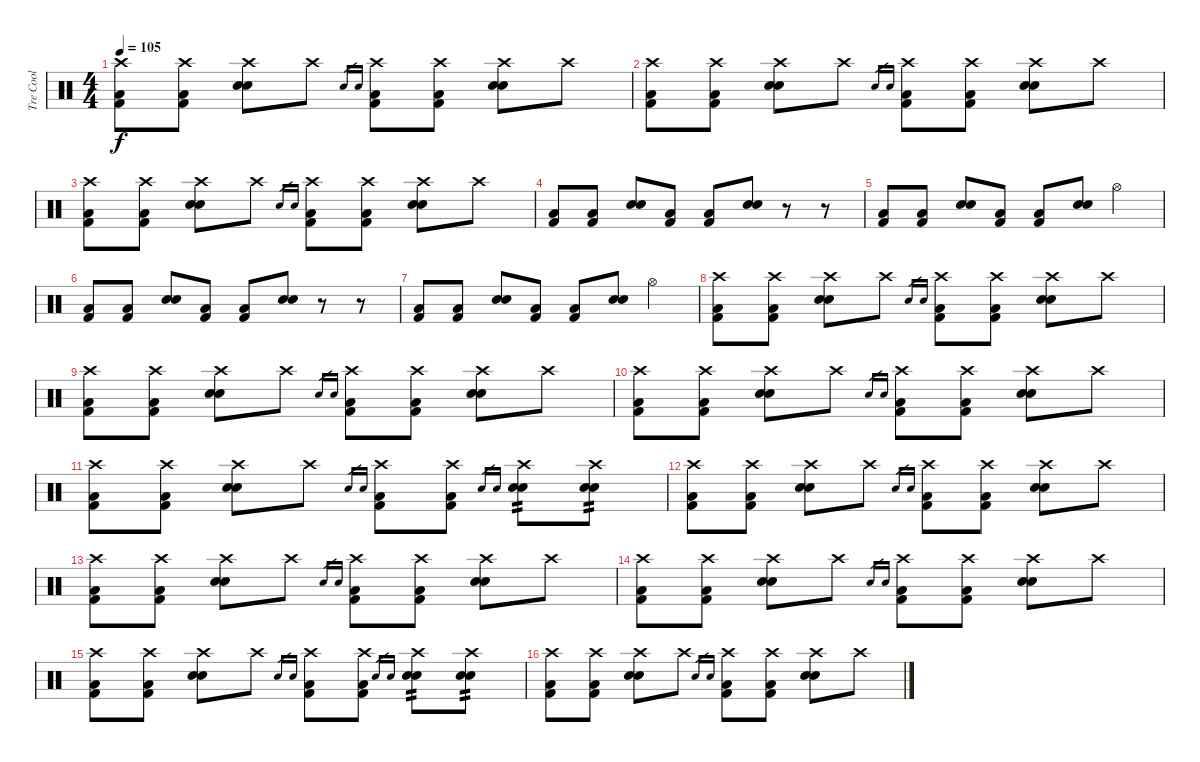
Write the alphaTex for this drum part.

\track ("Tre Cool" "Tre Cool") {instrument percussion}
\staff {score}
\articulation defaults
\ts (4 4)
\tempo 105
\clef neutral
\ks c
("Crash high (hit)" "Kick (hit) 2" "Low Floor Tom (hit)").8{dy f} ("Crash high (hit)" "Kick (hit) 2" "Low Floor Tom (hit)").8 ("Crash high (hit)" "Electric Snare (hit)" "Electric Snare (hit)").8 "Crash high (hit)".8 "Electric Snare (hit)".16{gr} "Electric Snare (hit)".16{gr} ("Crash high (hit)" "Kick (hit) 2" "Low Floor Tom (hit)").8 ("Crash high (hit)" "Kick (hit) 2" "Low Floor Tom (hit)").8 ("Crash high (hit)" "Electric Snare (hit)" "Electric Snare (hit)").8 "Crash high (hit)".8 |
("Crash high (hit)" "Kick (hit) 2" "Low Floor Tom (hit)").8 ("Crash high (hit)" "Kick (hit) 2" "Low Floor Tom (hit)").8 ("Crash high (hit)" "Electric Snare (hit)" "Electric Snare (hit)").8 "Crash high (hit)".8 "Electric Snare (hit)".16{gr} "Electric Snare (hit)".16{gr} ("Crash high (hit)" "Kick (hit) 2" "Low Floor Tom (hit)").8 ("Crash high (hit)" "Kick (hit) 2" "Low Floor Tom (hit)").8 ("Crash high (hit)" "Electric Snare (hit)" "Electric Snare (hit)").8 "Crash high (hit)".8 |
("Crash high (hit)" "Kick (hit) 2" "Low Floor Tom (hit)").8 ("Crash high (hit)" "Kick (hit) 2" "Low Floor Tom (hit)").8 ("Crash high (hit)" "Electric Snare (hit)" "Electric Snare (hit)").8 "Crash high (hit)".8 "Electric Snare (hit)".16{gr} "Electric Snare (hit)".16{gr} ("Crash high (hit)" "Kick (hit) 2" "Low Floor Tom (hit)").8 ("Crash high (hit)" "Kick (hit) 2" "Low Floor Tom (hit)").8 ("Crash high (hit)" "Electric Snare (hit)" "Electric Snare (hit)").8 "Crash high (hit)".8 |
("Kick (hit) 2" "Low Floor Tom (hit)").8 ("Kick (hit) 2" "Low Floor Tom (hit)").8 ("Electric Snare (hit)" "Electric Snare (hit)").8 ("Kick (hit) 2" "Low Floor Tom (hit)").8 ("Kick (hit) 2" "Low Floor Tom (hit)").8 ("Electric Snare (hit)" "Electric Snare (hit)").8 r.8 r.8 |
("Kick (hit) 2" "Low Floor Tom (hit)").8 ("Kick (hit) 2" "Low Floor Tom (hit)").8 ("Electric Snare (hit)" "Electric Snare (hit)").8 ("Kick (hit) 2" "Low Floor Tom (hit)").8 ("Kick (hit) 2" "Low Floor Tom (hit)").8 ("Electric Snare (hit)" "Electric Snare (hit)").8 "Hi-Hat (open)".4 |
("Kick (hit) 2" "Low Floor Tom (hit)").8 ("Kick (hit) 2" "Low Floor Tom (hit)").8 ("Electric Snare (hit)" "Electric Snare (hit)").8 ("Kick (hit) 2" "Low Floor Tom (hit)").8 ("Kick (hit) 2" "Low Floor Tom (hit)").8 ("Electric Snare (hit)" "Electric Snare (hit)").8 r.8 r.8 |
("Kick (hit) 2" "Low Floor Tom (hit)").8 ("Kick (hit) 2" "Low Floor Tom (hit)").8 ("Electric Snare (hit)" "Electric Snare (hit)").8 ("Kick (hit) 2" "Low Floor Tom (hit)").8 ("Kick (hit) 2" "Low Floor Tom (hit)").8 ("Electric Snare (hit)" "Electric Snare (hit)").8 "Hi-Hat (open)".4 |
("Crash high (hit)" "Kick (hit) 2" "Low Floor Tom (hit)").8 ("Crash high (hit)" "Kick (hit) 2" "Low Floor Tom (hit)").8 ("Crash high (hit)" "Electric Snare (hit)" "Electric Snare (hit)").8 "Crash high (hit)".8 "Electric Snare (hit)".16{gr} "Electric Snare (hit)".16{gr} ("Crash high (hit)" "Kick (hit) 2" "Low Floor Tom (hit)").8 ("Crash high (hit)" "Kick (hit) 2" "Low Floor Tom (hit)").8 ("Crash high (hit)" "Electric Snare (hit)" "Electric Snare (hit)").8 "Crash high (hit)".8 |
("Crash high (hit)" "Kick (hit) 2" "Low Floor Tom (hit)").8 ("Crash high (hit)" "Kick (hit) 2" "Low Floor Tom (hit)").8 ("Crash high (hit)" "Electric Snare (hit)" "Electric Snare (hit)").8 "Crash high (hit)".8 "Electric Snare (hit)".16{gr} "Electric Snare (hit)".16{gr} ("Crash high (hit)" "Kick (hit) 2" "Low Floor Tom (hit)").8 ("Crash high (hit)" "Kick (hit) 2" "Low Floor Tom (hit)").8 ("Crash high (hit)" "Electric Snare (hit)" "Electric Snare (hit)").8 "Crash high (hit)".8 |
("Crash high (hit)" "Kick (hit) 2" "Low Floor Tom (hit)").8 ("Crash high (hit)" "Kick (hit) 2" "Low Floor Tom (hit)").8 ("Crash high (hit)" "Electric Snare (hit)" "Electric Snare (hit)").8 "Crash high (hit)".8 "Electric Snare (hit)".16{gr} "Electric Snare (hit)".16{gr} ("Crash high (hit)" "Kick (hit) 2" "Low Floor Tom (hit)").8 ("Crash high (hit)" "Kick (hit) 2" "Low Floor Tom (hit)").8 ("Crash high (hit)" "Electric Snare (hit)" "Electric Snare (hit)").8 "Crash high (hit)".8 |
("Crash high (hit)" "Kick (hit) 2" "Low Floor Tom (hit)").8 ("Crash high (hit)" "Kick (hit) 2" "Low Floor Tom (hit)").8 ("Crash high (hit)" "Electric Snare (hit)" "Electric Snare (hit)").8 "Crash high (hit)".8 "Electric Snare (hit)".16{gr} "Electric Snare (hit)".16{gr} ("Crash high (hit)" "Kick (hit) 2" "Low Floor Tom (hit)").8 ("Crash high (hit)" "Kick (hit) 2" "Low Floor Tom (hit)").8 "Electric Snare (hit)".16{gr} "Electric Snare (hit)".16{gr} ("Crash high (hit)" "Electric Snare (hit)" "Electric Snare (hit)").8{tp 2} ("Crash high (hit)" "Electric Snare (hit)" "Electric Snare (hit)").8{tp 2} |
("Crash high (hit)" "Kick (hit) 2" "Low Floor Tom (hit)").8 ("Crash high (hit)" "Kick (hit) 2" "Low Floor Tom (hit)").8 ("Crash high (hit)" "Electric Snare (hit)" "Electric Snare (hit)").8 "Crash high (hit)".8 "Electric Snare (hit)".16{gr} "Electric Snare (hit)".16{gr} ("Crash high (hit)" "Kick (hit) 2" "Low Floor Tom (hit)").8 ("Crash high (hit)" "Kick (hit) 2" "Low Floor Tom (hit)").8 ("Crash high (hit)" "Electric Snare (hit)" "Electric Snare (hit)").8 "Crash high (hit)".8 |
("Crash high (hit)" "Kick (hit) 2" "Low Floor Tom (hit)").8 ("Crash high (hit)" "Kick (hit) 2" "Low Floor Tom (hit)").8 ("Crash high (hit)" "Electric Snare (hit)" "Electric Snare (hit)").8 "Crash high (hit)".8 "Electric Snare (hit)".16{gr} "Electric Snare (hit)".16{gr} ("Crash high (hit)" "Kick (hit) 2" "Low Floor Tom (hit)").8 ("Crash high (hit)" "Kick (hit) 2" "Low Floor Tom (hit)").8 ("Crash high (hit)" "Electric Snare (hit)" "Electric Snare (hit)").8 "Crash high (hit)".8 |
("Crash high (hit)" "Kick (hit) 2" "Low Floor Tom (hit)").8 ("Crash high (hit)" "Kick (hit) 2" "Low Floor Tom (hit)").8 ("Crash high (hit)" "Electric Snare (hit)" "Electric Snare (hit)").8 "Crash high (hit)".8 "Electric Snare (hit)".16{gr} "Electric Snare (hit)".16{gr} ("Crash high (hit)" "Kick (hit) 2" "Low Floor Tom (hit)").8 ("Crash high (hit)" "Kick (hit) 2" "Low Floor Tom (hit)").8 ("Crash high (hit)" "Electric Snare (hit)" "Electric Snare (hit)").8 "Crash high (hit)".8 |
("Crash high (hit)" "Kick (hit) 2" "Low Floor Tom (hit)").8 ("Crash high (hit)" "Kick (hit) 2" "Low Floor Tom (hit)").8 ("Crash high (hit)" "Electric Snare (hit)" "Electric Snare (hit)").8 "Crash high (hit)".8 "Electric Snare (hit)".16{gr} "Electric Snare (hit)".16{gr} ("Crash high (hit)" "Kick (hit) 2" "Low Floor Tom (hit)").8 ("Crash high (hit)" "Kick (hit) 2" "Low Floor Tom (hit)").8 "Electric Snare (hit)".16{gr} "Electric Snare (hit)".16{gr} ("Crash high (hit)" "Electric Snare (hit)" "Electric Snare (hit)").8{tp 2} ("Crash high (hit)" "Electric Snare (hit)" "Electric Snare (hit)").8{tp 2} |
("Crash high (hit)" "Kick (hit) 2" "Low Floor Tom (hit)").8 ("Crash high (hit)" "Kick (hit) 2" "Low Floor Tom (hit)").8 ("Crash high (hit)" "Electric Snare (hit)" "Electric Snare (hit)").8 "Crash high (hit)".8 "Electric Snare (hit)".16{gr} "Electric Snare (hit)".16{gr} ("Crash high (hit)" "Kick (hit) 2" "Low Floor Tom (hit)").8 ("Crash high (hit)" "Kick (hit) 2" "Low Floor Tom (hit)").8 ("Crash high (hit)" "Electric Snare (hit)" "Electric Snare (hit)").8 "Crash high (hit)".8
